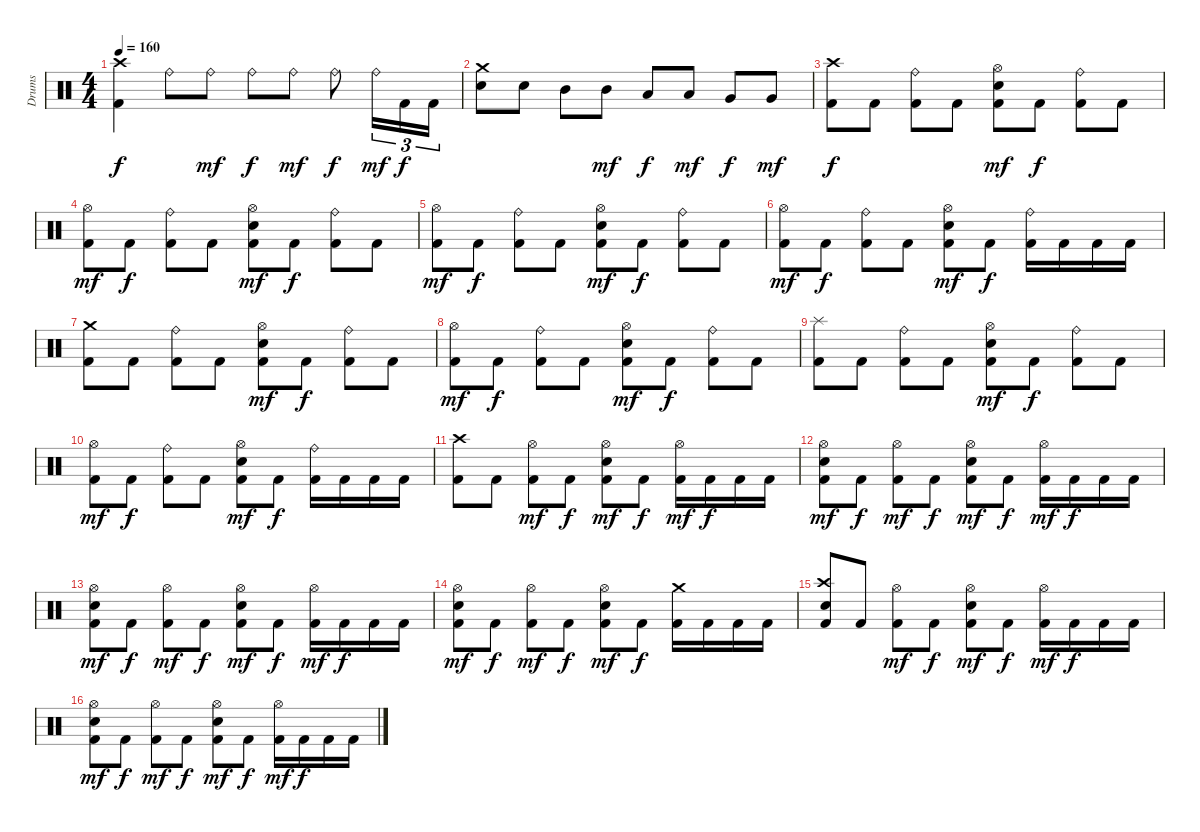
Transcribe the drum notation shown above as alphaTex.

\track ("Drums" "Drums") {instrument percussion}
\staff {score}
\articulation defaults
\ts (4 4)
\tempo 160
\clef neutral
\ks c
("Kick (hit) 2" "Crash high (hit)").4{dy f} "Ride (bell)".8 "Ride (bell)".8{dy mf} "Ride (bell)".8{dy f} "Ride (bell)".8{dy mf} "Ride (bell)".8{dy f} "Ride (bell)".16{tu (3 2) dy mf} "Kick (hit) 2".16{tu (3 2) dy f} "Kick (hit) 2".16{tu (3 2)} |
("Crash medium (hit)" "Electric Snare (hit)").8 "Electric Snare (hit)".8 "Mid Tom (hit)".8 "Mid Tom (hit)".8{dy mf} "Low Tom (hit)".8{dy f} "Low Tom (hit)".8{dy mf} "Very Low Tom (hit)".8{dy f} "Very Low Tom (hit)".8{dy mf} |
("Kick (hit) 2" "Crash high (hit)").8{dy f} "Kick (hit) 2".8 ("Kick (hit) 2" "Ride (bell)").8 "Kick (hit) 2".8 ("Kick (hit) 2" "Hi-Hat (open)" "Electric Snare (hit)").8{dy mf} "Kick (hit) 2".8{dy f} ("Kick (hit) 2" "Ride (bell)").8 "Kick (hit) 2".8 |
("Kick (hit) 2" "Hi-Hat (open)").8{dy mf} "Kick (hit) 2".8{dy f} ("Kick (hit) 2" "Ride (bell)").8 "Kick (hit) 2".8 ("Kick (hit) 2" "Hi-Hat (open)" "Electric Snare (hit)").8{dy mf} "Kick (hit) 2".8{dy f} ("Kick (hit) 2" "Ride (bell)").8 "Kick (hit) 2".8 |
("Kick (hit) 2" "Hi-Hat (open)").8{dy mf} "Kick (hit) 2".8{dy f} ("Kick (hit) 2" "Ride (bell)").8 "Kick (hit) 2".8 ("Kick (hit) 2" "Hi-Hat (open)" "Electric Snare (hit)").8{dy mf} "Kick (hit) 2".8{dy f} ("Kick (hit) 2" "Ride (bell)").8 "Kick (hit) 2".8 |
("Kick (hit) 2" "Hi-Hat (open)").8{dy mf} "Kick (hit) 2".8{dy f} ("Kick (hit) 2" "Ride (bell)").8 "Kick (hit) 2".8 ("Kick (hit) 2" "Hi-Hat (open)" "Electric Snare (hit)").8{dy mf} "Kick (hit) 2".8{dy f} ("Kick (hit) 2" "Ride (bell)").16 "Kick (hit) 2".16 "Kick (hit) 2".16 "Kick (hit) 2".16 |
("Kick (hit) 2" "Crash medium (hit)").8 "Kick (hit) 2".8 ("Kick (hit) 2" "Ride (bell)").8 "Kick (hit) 2".8 ("Kick (hit) 2" "Hi-Hat (open)" "Electric Snare (hit)").8{dy mf} "Kick (hit) 2".8{dy f} ("Kick (hit) 2" "Ride (bell)").8 "Kick (hit) 2".8 |
("Kick (hit) 2" "Hi-Hat (open)").8{dy mf} "Kick (hit) 2".8{dy f} ("Kick (hit) 2" "Ride (bell)").8 "Kick (hit) 2".8 ("Kick (hit) 2" "Hi-Hat (open)" "Electric Snare (hit)").8{dy mf} "Kick (hit) 2".8{dy f} ("Kick (hit) 2" "Ride (bell)").8 "Kick (hit) 2".8 |
("Kick (hit) 2" "Splash (hit)").8 "Kick (hit) 2".8 ("Kick (hit) 2" "Ride (bell)").8 "Kick (hit) 2".8 ("Kick (hit) 2" "Hi-Hat (open)" "Electric Snare (hit)").8{dy mf} "Kick (hit) 2".8{dy f} ("Kick (hit) 2" "Ride (bell)").8 "Kick (hit) 2".8 |
("Kick (hit) 2" "Hi-Hat (open)").8{dy mf} "Kick (hit) 2".8{dy f} ("Kick (hit) 2" "Ride (bell)").8 "Kick (hit) 2".8 ("Kick (hit) 2" "Hi-Hat (open)" "Electric Snare (hit)").8{dy mf} "Kick (hit) 2".8{dy f} ("Kick (hit) 2" "Ride (bell)").16 "Kick (hit) 2".16 "Kick (hit) 2".16 "Kick (hit) 2".16 |
("Kick (hit) 2" "Crash high (hit)").8 "Kick (hit) 2".8 ("Kick (hit) 2" "Hi-Hat (open)").8{dy mf} "Kick (hit) 2".8{dy f} ("Kick (hit) 2" "Hi-Hat (open)" "Electric Snare (hit)").8{dy mf} "Kick (hit) 2".8{dy f} ("Kick (hit) 2" "Hi-Hat (open)").16{dy mf} "Kick (hit) 2".16{dy f} "Kick (hit) 2".16 "Kick (hit) 2".16 |
("Kick (hit) 2" "Hi-Hat (open)" "Electric Snare (hit)").8{dy mf} "Kick (hit) 2".8{dy f} ("Kick (hit) 2" "Hi-Hat (open)").8{dy mf} "Kick (hit) 2".8{dy f} ("Kick (hit) 2" "Hi-Hat (open)" "Electric Snare (hit)").8{dy mf} "Kick (hit) 2".8{dy f} ("Kick (hit) 2" "Hi-Hat (open)").16{dy mf} "Kick (hit) 2".16{dy f} "Kick (hit) 2".16 "Kick (hit) 2".16 |
("Kick (hit) 2" "Hi-Hat (open)" "Electric Snare (hit)").8{dy mf} "Kick (hit) 2".8{dy f} ("Kick (hit) 2" "Hi-Hat (open)").8{dy mf} "Kick (hit) 2".8{dy f} ("Kick (hit) 2" "Hi-Hat (open)" "Electric Snare (hit)").8{dy mf} "Kick (hit) 2".8{dy f} ("Kick (hit) 2" "Hi-Hat (open)").16{dy mf} "Kick (hit) 2".16{dy f} "Kick (hit) 2".16 "Kick (hit) 2".16 |
("Kick (hit) 2" "Hi-Hat (open)" "Electric Snare (hit)").8{dy mf} "Kick (hit) 2".8{dy f} ("Kick (hit) 2" "Hi-Hat (open)").8{dy mf} "Kick (hit) 2".8{dy f} ("Kick (hit) 2" "Hi-Hat (open)" "Electric Snare (hit)").8{dy mf} "Kick (hit) 2".8{dy f} ("Kick (hit) 2" "Crash medium (hit)").16 "Kick (hit) 2".16 "Kick (hit) 2".16 "Kick (hit) 2".16 |
("Kick (hit) 2" "Crash high (hit)" "Electric Snare (hit)").8 "Kick (hit) 2".8 ("Kick (hit) 2" "Hi-Hat (open)").8{dy mf} "Kick (hit) 2".8{dy f} ("Kick (hit) 2" "Hi-Hat (open)" "Electric Snare (hit)").8{dy mf} "Kick (hit) 2".8{dy f} ("Kick (hit) 2" "Hi-Hat (open)").16{dy mf} "Kick (hit) 2".16{dy f} "Kick (hit) 2".16 "Kick (hit) 2".16 |
("Kick (hit) 2" "Hi-Hat (open)" "Electric Snare (hit)").8{dy mf} "Kick (hit) 2".8{dy f} ("Kick (hit) 2" "Hi-Hat (open)").8{dy mf} "Kick (hit) 2".8{dy f} ("Kick (hit) 2" "Hi-Hat (open)" "Electric Snare (hit)").8{dy mf} "Kick (hit) 2".8{dy f} ("Kick (hit) 2" "Hi-Hat (open)").16{dy mf} "Kick (hit) 2".16{dy f} "Kick (hit) 2".16 "Kick (hit) 2".16
